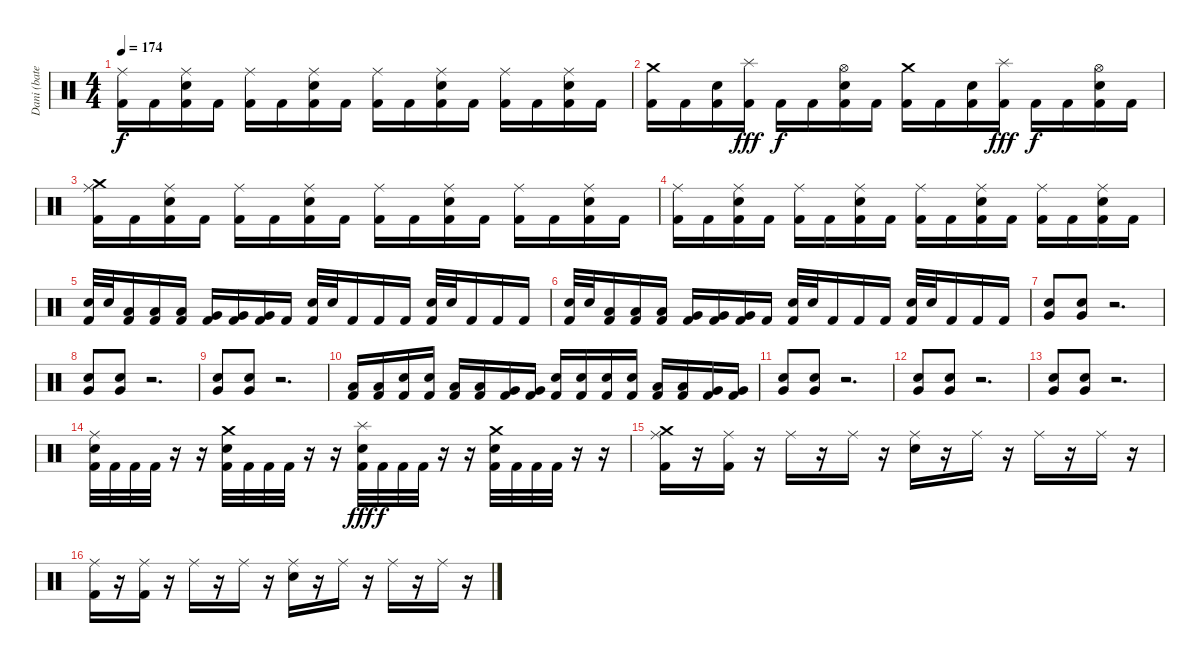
\track ("Dani (batería)" "Dani (bate") {instrument percussion}
\staff {score}
\articulation defaults
\ts (4 4)
\tempo 174
\clef neutral
\ks c
("Ride (middle)" "Kick (hit) 2").16{dy f} "Kick (hit) 2".16 ("Ride (middle)" "Electric Snare (hit)" "Kick (hit) 2").16 "Kick (hit) 2".16 ("Ride (middle)" "Kick (hit) 2").16 "Kick (hit) 2".16 ("Ride (middle)" "Electric Snare (hit)" "Kick (hit) 2").16 "Kick (hit) 2".16 ("Ride (middle)" "Kick (hit) 2").16 "Kick (hit) 2".16 ("Ride (middle)" "Electric Snare (hit)" "Kick (hit) 2").16 "Kick (hit) 2".16 ("Ride (middle)" "Kick (hit) 2").16 "Kick (hit) 2".16 ("Ride (middle)" "Electric Snare (hit)" "Kick (hit) 2").16 "Kick (hit) 2".16 |
("Crash medium (hit)" "Kick (hit) 2").16 "Kick (hit) 2".16 ("Electric Snare (hit)" "Kick (hit) 2").16 ("Splash (hit)" "Kick (hit) 2").16{dy fff} "Kick (hit) 2".16{dy f} "Kick (hit) 2".16 ("Hi-Hat (open)" "Electric Snare (hit)" "Kick (hit) 2").16 "Kick (hit) 2".16 ("Crash medium (hit)" "Kick (hit) 2").16 "Kick (hit) 2".16 ("Electric Snare (hit)" "Kick (hit) 2").16 ("Splash (hit)" "Kick (hit) 2").16{dy fff} "Kick (hit) 2".16{dy f} "Kick (hit) 2".16 ("Hi-Hat (open)" "Electric Snare (hit)" "Kick (hit) 2").16 "Kick (hit) 2".16 |
("Crash medium (hit)" "Ride (middle)" "Kick (hit) 2").16 "Kick (hit) 2".16 ("Ride (middle)" "Electric Snare (hit)" "Kick (hit) 2").16 "Kick (hit) 2".16 ("Ride (middle)" "Kick (hit) 2").16 "Kick (hit) 2".16 ("Ride (middle)" "Electric Snare (hit)" "Kick (hit) 2").16 "Kick (hit) 2".16 ("Ride (middle)" "Kick (hit) 2").16 "Kick (hit) 2".16 ("Ride (middle)" "Electric Snare (hit)" "Kick (hit) 2").16 "Kick (hit) 2".16 ("Ride (middle)" "Kick (hit) 2").16 "Kick (hit) 2".16 ("Ride (middle)" "Electric Snare (hit)" "Kick (hit) 2").16 "Kick (hit) 2".16 |
("Ride (middle)" "Kick (hit) 2").16 "Kick (hit) 2".16 ("Ride (middle)" "Electric Snare (hit)" "Kick (hit) 2").16 "Kick (hit) 2".16 ("Ride (middle)" "Kick (hit) 2").16 "Kick (hit) 2".16 ("Ride (middle)" "Electric Snare (hit)" "Kick (hit) 2").16 "Kick (hit) 2".16 ("Ride (middle)" "Kick (hit) 2").16 "Kick (hit) 2".16 ("Ride (middle)" "Electric Snare (hit)" "Kick (hit) 2").16 "Kick (hit) 2".16 ("Ride (middle)" "Kick (hit) 2").16 "Kick (hit) 2".16 ("Ride (middle)" "Electric Snare (hit)" "Kick (hit) 2").16 "Kick (hit) 2".16 |
("Electric Snare (hit)" "Kick (hit) 2").32 "Electric Snare (hit)".32 ("Low Tom (hit)" "Kick (hit) 2").16 ("Low Tom (hit)" "Kick (hit) 2").16 ("Low Tom (hit)" "Kick (hit) 2").16 ("Very Low Tom (hit)" "Kick (hit) 2").16 ("Very Low Tom (hit)" "Kick (hit) 2").16 ("Very Low Tom (hit)" "Kick (hit) 2").16 "Kick (hit) 2".16 ("Electric Snare (hit)" "Kick (hit) 2").32 "Electric Snare (hit)".32 "Kick (hit) 2".16 "Kick (hit) 2".16 "Kick (hit) 2".16 ("Electric Snare (hit)" "Kick (hit) 2").32 "Electric Snare (hit)".32 "Kick (hit) 2".16 "Kick (hit) 2".16 "Kick (hit) 2".16 |
("Electric Snare (hit)" "Kick (hit) 2").32 "Electric Snare (hit)".32 ("Low Tom (hit)" "Kick (hit) 2").16 ("Low Tom (hit)" "Kick (hit) 2").16 ("Low Tom (hit)" "Kick (hit) 2").16 ("Very Low Tom (hit)" "Kick (hit) 2").16 ("Very Low Tom (hit)" "Kick (hit) 2").16 ("Very Low Tom (hit)" "Kick (hit) 2").16 "Kick (hit) 2".16 ("Electric Snare (hit)" "Kick (hit) 2").32 "Electric Snare (hit)".32 "Kick (hit) 2".16 "Kick (hit) 2".16 "Kick (hit) 2".16 ("Electric Snare (hit)" "Kick (hit) 2").32 "Electric Snare (hit)".32 "Kick (hit) 2".16 "Kick (hit) 2".16 "Kick (hit) 2".16 |
("Very Low Tom (hit)" "Electric Snare (hit)").8 ("Very Low Tom (hit)" "Electric Snare (hit)").8 r.2{d} |
("Very Low Tom (hit)" "Electric Snare (hit)").8 ("Very Low Tom (hit)" "Electric Snare (hit)").8 r.2{d} |
("Very Low Tom (hit)" "Electric Snare (hit)").8 ("Very Low Tom (hit)" "Electric Snare (hit)").8 r.2{d} |
("Low Tom (hit)" "Kick (hit) 2").16 ("Low Tom (hit)" "Kick (hit) 2").16 ("Electric Snare (hit)" "Kick (hit) 2").16 ("Electric Snare (hit)" "Kick (hit) 2").16 ("Low Tom (hit)" "Kick (hit) 2").16 ("Low Tom (hit)" "Kick (hit) 2").16 ("Very Low Tom (hit)" "Kick (hit) 2").16 ("Very Low Tom (hit)" "Kick (hit) 2").16 ("Electric Snare (hit)" "Kick (hit) 2").16 ("Electric Snare (hit)" "Kick (hit) 2").16 ("Electric Snare (hit)" "Kick (hit) 2").16 ("Electric Snare (hit)" "Kick (hit) 2").16 ("Low Tom (hit)" "Kick (hit) 2").16 ("Low Tom (hit)" "Kick (hit) 2").16 ("Very Low Tom (hit)" "Kick (hit) 2").16 ("Very Low Tom (hit)" "Kick (hit) 2").16 |
("Very Low Tom (hit)" "Electric Snare (hit)").8 ("Very Low Tom (hit)" "Electric Snare (hit)").8 r.2{d} |
("Very Low Tom (hit)" "Electric Snare (hit)").8 ("Very Low Tom (hit)" "Electric Snare (hit)").8 r.2{d} |
("Very Low Tom (hit)" "Electric Snare (hit)").8 ("Very Low Tom (hit)" "Electric Snare (hit)").8 r.2{d} |
("Ride (middle)" "Electric Snare (hit)" "Kick (hit) 2").32 "Kick (hit) 2".32 "Kick (hit) 2".32 "Kick (hit) 2".32 r.16 r.16 ("Crash medium (hit)" "Electric Snare (hit)" "Kick (hit) 2").32 "Kick (hit) 2".32 "Kick (hit) 2".32 "Kick (hit) 2".32 r.16 r.16 ("Splash (hit)" "Electric Snare (hit)" "Kick (hit) 2").32{dy fff} "Kick (hit) 2".32{dy f} "Kick (hit) 2".32 "Kick (hit) 2".32 r.16 r.16 ("Crash medium (hit)" "Electric Snare (hit)" "Kick (hit) 2").32 "Kick (hit) 2".32 "Kick (hit) 2".32 "Kick (hit) 2".32 r.16 r.16 |
("Crash medium (hit)" "Ride (middle)" "Kick (hit) 2").16 r.16 ("Ride (middle)" "Kick (hit) 2").16 r.16 "Ride (middle)".16 r.16 "Ride (middle)".16 r.16 ("Ride (middle)" "Electric Snare (hit)").16 r.16 "Ride (middle)".16 r.16 "Ride (middle)".16 r.16 "Ride (middle)".16 r.16 |
("Ride (middle)" "Kick (hit) 2").16 r.16 ("Ride (middle)" "Kick (hit) 2").16 r.16 "Ride (middle)".16 r.16 "Ride (middle)".16 r.16 ("Ride (middle)" "Electric Snare (hit)").16 r.16 "Ride (middle)".16 r.16 "Ride (middle)".16 r.16 "Ride (middle)".16 r.16
